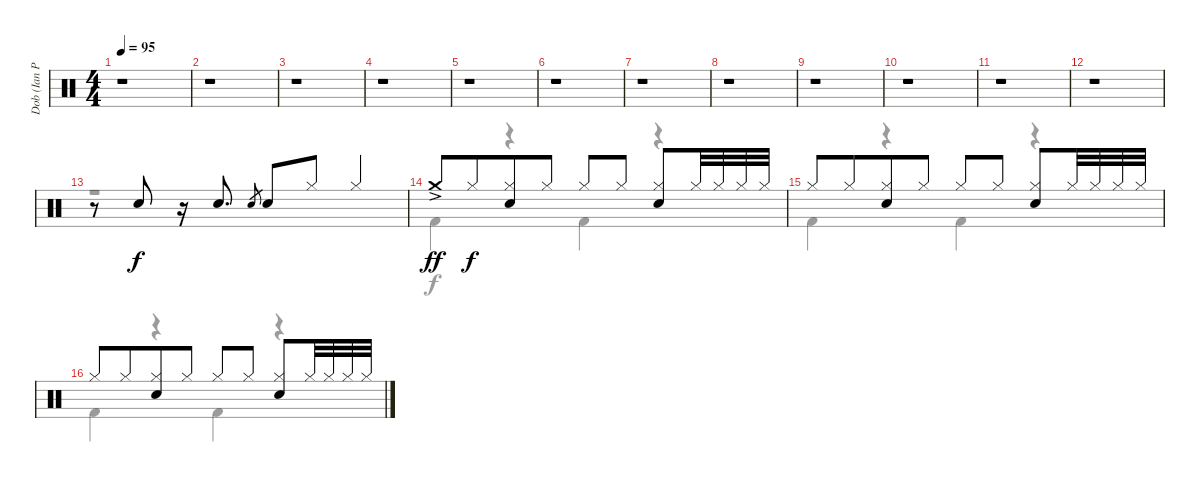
\track ("Dob (Ian Paice)" "Dob (Ian P") {instrument percussion}
\staff {score}
\articulation defaults
\voice
\ts (4 4)
\tempo 95
\clef neutral
\ks c
r.1{dy f} |
r.1 |
r.1 |
r.1 |
r.1 |
r.1 |
r.1 |
r.1 |
r.1 |
r.1 |
r.1 |
r.1 |
r.8 "Electric Snare (hit)".8 r.16 "Electric Snare (hit)".8{d} "Electric Snare (hit)"{h}.8{gr} "Electric Snare (hit)".8 "Hi-Hat (closed)".8 "Hi-Hat (closed)".4 |
"Crash medium (hit)"{ac}.8{dy ff} "Hi-Hat (closed)".8{dy f beam merge} ("Hi-Hat (closed)" "Electric Snare (hit)").8 "Hi-Hat (closed)".8 "Hi-Hat (closed)".8 "Hi-Hat (closed)".8{beam split} ("Hi-Hat (closed)" "Electric Snare (hit)").8 "Hi-Hat (closed)".32 "Hi-Hat (closed)".32 "Hi-Hat (closed)".32 "Hi-Hat (closed)".32 |
"Hi-Hat (closed)".8 "Hi-Hat (closed)".8{beam merge} ("Hi-Hat (closed)" "Electric Snare (hit)").8 "Hi-Hat (closed)".8 "Hi-Hat (closed)".8 "Hi-Hat (closed)".8{beam split} ("Hi-Hat (closed)" "Electric Snare (hit)").8 "Hi-Hat (closed)".32 "Hi-Hat (closed)".32 "Hi-Hat (closed)".32 "Hi-Hat (closed)".32 |
"Hi-Hat (closed)".8 "Hi-Hat (closed)".8{beam merge} ("Hi-Hat (closed)" "Electric Snare (hit)").8 "Hi-Hat (closed)".8 "Hi-Hat (closed)".8 "Hi-Hat (closed)".8{beam split} ("Hi-Hat (closed)" "Electric Snare (hit)").8 "Hi-Hat (closed)".32 "Hi-Hat (closed)".32 "Hi-Hat (closed)".32 "Hi-Hat (closed)".32
\voice
\clef neutral
\ottava regular
\simile none
\ks c
|
|
|
|
|
|
|
|
|
|
|
|
r.1 |
"Kick (hit) 2".4 r.4 "Kick (hit) 2".4 r.4 |
"Kick (hit) 2".4 r.4 "Kick (hit) 2".4 r.4 |
"Kick (hit) 2".4 r.4 "Kick (hit) 2".4 r.4
